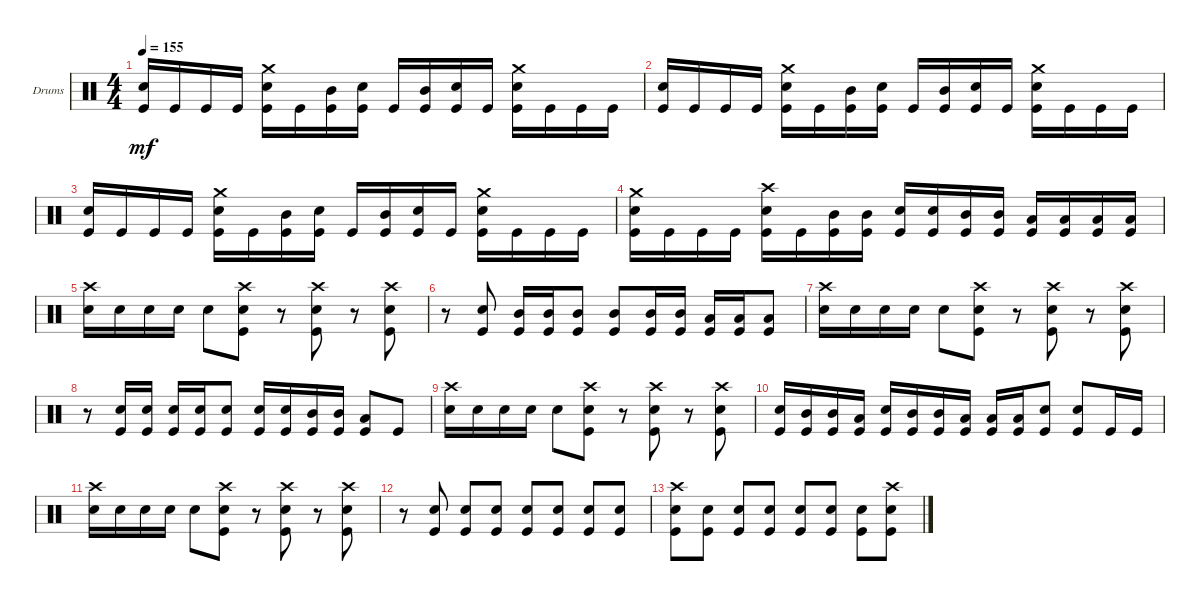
\defaultSystemsLayout 4
\bracketExtendMode groupsimilarinstruments
\firstSystemTrackNameOrientation horizontal
\otherSystemsTrackNameOrientation horizontal
\track ("Drumkit" "Drums") {instrument percussion}
\staff {score}
\articulation defaults
\ts (4 4)
\tempo 155
\clef neutral
\ks c
("Kick (hit)" "Snare (hit) 2").16{dy mf} "Kick (hit)".16 "Kick (hit)".16 "Kick (hit)".16 ("Kick (hit)" "Snare (hit) 2" "Crash medium (hit)").16 "Kick (hit)".16 ("Kick (hit)" "Mid Tom (hit)").16 ("Kick (hit)" "Snare (hit) 2").16 "Kick (hit)".16 ("Kick (hit)" "Mid Tom (hit)").16 ("Kick (hit)" "Snare (hit) 2").16 "Kick (hit)".16 ("Kick (hit)" "Snare (hit) 2" "Crash medium (hit)").16 "Kick (hit)".16 "Kick (hit)".16 "Kick (hit)".16 |
("Kick (hit)" "Snare (hit) 2").16 "Kick (hit)".16 "Kick (hit)".16 "Kick (hit)".16 ("Kick (hit)" "Snare (hit) 2" "Crash medium (hit)").16 "Kick (hit)".16 ("Kick (hit)" "Mid Tom (hit)").16 ("Kick (hit)" "Snare (hit) 2").16 "Kick (hit)".16 ("Kick (hit)" "Mid Tom (hit)").16 ("Kick (hit)" "Snare (hit) 2").16 "Kick (hit)".16 ("Kick (hit)" "Snare (hit) 2" "Crash medium (hit)").16 "Kick (hit)".16 "Kick (hit)".16 "Kick (hit)".16 |
("Kick (hit)" "Snare (hit) 2").16 "Kick (hit)".16 "Kick (hit)".16 "Kick (hit)".16 ("Kick (hit)" "Snare (hit) 2" "Crash medium (hit)").16 "Kick (hit)".16 ("Kick (hit)" "Mid Tom (hit)").16 ("Kick (hit)" "Snare (hit) 2").16 "Kick (hit)".16 ("Kick (hit)" "Mid Tom (hit)").16 ("Kick (hit)" "Snare (hit) 2").16 "Kick (hit)".16 ("Kick (hit)" "Snare (hit) 2" "Crash medium (hit)").16 "Kick (hit)".16 "Kick (hit)".16 "Kick (hit)".16 |
("Kick (hit)" "Snare (hit) 2" "Crash medium (hit)").16 "Kick (hit)".16 "Kick (hit)".16 "Kick (hit)".16 ("Kick (hit)" "Snare (hit) 2" "Crash high (hit)").16 "Kick (hit)".16 ("Kick (hit)" "Mid Tom (hit)").16 ("Kick (hit)" "Mid Tom (hit)").16 ("Kick (hit)" "Snare (hit) 2").16 ("Kick (hit)" "Snare (hit) 2").16 ("Kick (hit)" "Mid Tom (hit)").16 ("Kick (hit)" "Mid Tom (hit)").16 ("Kick (hit)" "Low Tom (hit)").16 ("Kick (hit)" "Low Tom (hit)").16 ("Kick (hit)" "Low Tom (hit)").16 ("Kick (hit)" "Low Tom (hit)").16 |
("Snare (hit) 2" "Crash high (hit)").16 "Snare (hit) 2".16 "Snare (hit) 2".16 "Snare (hit) 2".16 "Snare (hit) 2".8 ("Kick (hit)" "Snare (hit) 2" "Crash high (hit)").8 r.8 ("Kick (hit)" "Snare (hit) 2" "Crash high (hit)").8 r.8 ("Kick (hit)" "Snare (hit) 2" "Crash high (hit)").8 |
r.8 ("Kick (hit)" "Snare (hit) 2").8 ("Kick (hit)" "Mid Tom (hit)").16 ("Kick (hit)" "Mid Tom (hit)").16 ("Kick (hit)" "Mid Tom (hit)").8 ("Kick (hit)" "Mid Tom (hit)").8 ("Kick (hit)" "Mid Tom (hit)").16 ("Kick (hit)" "Mid Tom (hit)").16 ("Kick (hit)" "Low Tom (hit)").16 ("Kick (hit)" "Low Tom (hit)").16 ("Kick (hit)" "Low Tom (hit)").8 |
("Snare (hit) 2" "Crash high (hit)").16 "Snare (hit) 2".16 "Snare (hit) 2".16 "Snare (hit) 2".16 "Snare (hit) 2".8 ("Kick (hit)" "Snare (hit) 2" "Crash high (hit)").8 r.8 ("Kick (hit)" "Snare (hit) 2" "Crash high (hit)").8 r.8 ("Kick (hit)" "Snare (hit) 2" "Crash high (hit)").8 |
r.8 ("Kick (hit)" "Snare (hit) 2").16 ("Kick (hit)" "Snare (hit) 2").16 ("Kick (hit)" "Snare (hit) 2").16 ("Kick (hit)" "Snare (hit) 2").16 ("Kick (hit)" "Snare (hit) 2").8 ("Kick (hit)" "Snare (hit) 2").16 ("Kick (hit)" "Snare (hit) 2").16 ("Kick (hit)" "Mid Tom (hit)").16 ("Kick (hit)" "Mid Tom (hit)").16 ("Kick (hit)" "Low Tom (hit)").8 "Kick (hit)".8 |
("Snare (hit) 2" "Crash high (hit)").16 "Snare (hit) 2".16 "Snare (hit) 2".16 "Snare (hit) 2".16 "Snare (hit) 2".8 ("Kick (hit)" "Snare (hit) 2" "Crash high (hit)").8 r.8 ("Kick (hit)" "Snare (hit) 2" "Crash high (hit)").8 r.8 ("Kick (hit)" "Snare (hit) 2" "Crash high (hit)").8 |
("Kick (hit)" "Snare (hit) 2").16 ("Kick (hit)" "Mid Tom (hit)").16 ("Kick (hit)" "Mid Tom (hit)").16 ("Kick (hit)" "Low Tom (hit)").16 ("Kick (hit)" "Snare (hit) 2").16 ("Kick (hit)" "Mid Tom (hit)").16 ("Kick (hit)" "Mid Tom (hit)").16 ("Kick (hit)" "Low Tom (hit)").16 ("Kick (hit)" "Low Tom (hit)").16 ("Kick (hit)" "Low Tom (hit)").16 ("Kick (hit)" "Snare (hit) 2").8 ("Kick (hit)" "Snare (hit) 2").8 "Kick (hit)".16 "Kick (hit)".16 |
("Snare (hit) 2" "Crash high (hit)").16 "Snare (hit) 2".16 "Snare (hit) 2".16 "Snare (hit) 2".16 "Snare (hit) 2".8 ("Kick (hit)" "Snare (hit) 2" "Crash high (hit)").8 r.8 ("Kick (hit)" "Snare (hit) 2" "Crash high (hit)").8 r.8 ("Kick (hit)" "Snare (hit) 2" "Crash high (hit)").8 |
r.8 ("Kick (hit)" "Snare (hit) 2").8 ("Kick (hit)" "Snare (hit) 2").8 ("Kick (hit)" "Snare (hit) 2").8 ("Kick (hit)" "Snare (hit) 2").8 ("Kick (hit)" "Snare (hit) 2").8 ("Kick (hit)" "Snare (hit) 2").8 ("Kick (hit)" "Snare (hit) 2").8 |
("Kick (hit)" "Snare (hit) 2" "Crash high (hit)").8 ("Kick (hit)" "Snare (hit) 2").8 ("Kick (hit)" "Snare (hit) 2").8 ("Kick (hit)" "Snare (hit) 2").8 ("Kick (hit)" "Snare (hit) 2").8 ("Kick (hit)" "Snare (hit) 2").8 ("Kick (hit)" "Snare (hit) 2").8 ("Kick (hit)" "Snare (hit) 2" "Crash high (hit)").8
